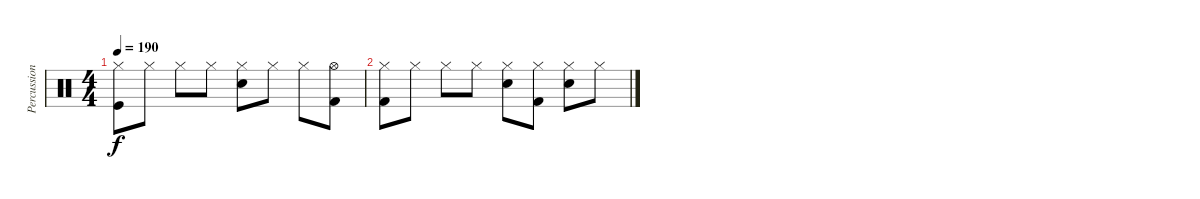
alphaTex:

\track ("Percussion" "Percussion") {instrument percussion}
\staff {score}
\articulation defaults
\ts (4 4)
\tempo 190
\clef neutral
\ks c
("Kick (hit)" "Hi-Hat (closed)").8{dy f} "Hi-Hat (closed)".8 "Hi-Hat (closed)".8 "Hi-Hat (closed)".8 ("Snare (hit) 2" "Hi-Hat (closed)").8 "Hi-Hat (closed)".8 "Hi-Hat (closed)".8 ("Kick (hit) 2" "Hi-Hat (open)").8 |
("Kick (hit) 2" "Hi-Hat (closed)").8 "Hi-Hat (closed)".8 "Hi-Hat (closed)".8 "Hi-Hat (closed)".8 ("Snare (hit) 2" "Hi-Hat (closed)").8 ("Kick (hit) 2" "Hi-Hat (closed)").8 ("Snare (hit) 2" "Hi-Hat (closed)").8 "Hi-Hat (closed)".8
